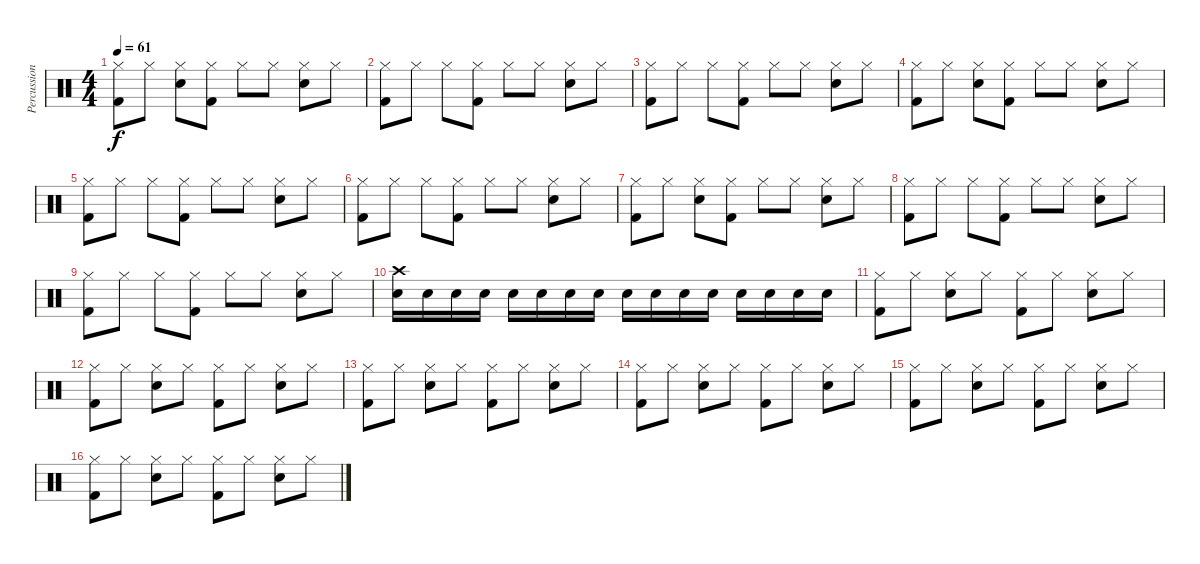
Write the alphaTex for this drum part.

\track ("Percussion" "Percussion") {instrument percussion}
\staff {score}
\articulation defaults
\ts (4 4)
\tempo 61
\clef neutral
\ks c
("Hi-Hat (closed)" "Kick (hit) 2").8{dy f} "Hi-Hat (closed)".8 ("Hi-Hat (closed)" "Snare (hit) 2").8 ("Hi-Hat (closed)" "Kick (hit) 2").8 "Hi-Hat (closed)".8 "Hi-Hat (closed)".8 ("Hi-Hat (closed)" "Snare (hit) 2").8 "Hi-Hat (closed)".8 |
("Hi-Hat (closed)" "Kick (hit) 2").8 "Hi-Hat (closed)".8 "Hi-Hat (closed)".8 ("Hi-Hat (closed)" "Kick (hit) 2").8 "Hi-Hat (closed)".8 "Hi-Hat (closed)".8 ("Hi-Hat (closed)" "Snare (hit) 2").8 "Hi-Hat (closed)".8 |
("Hi-Hat (closed)" "Kick (hit) 2").8 "Hi-Hat (closed)".8 "Hi-Hat (closed)".8 ("Hi-Hat (closed)" "Kick (hit) 2").8 "Hi-Hat (closed)".8 "Hi-Hat (closed)".8 ("Hi-Hat (closed)" "Snare (hit) 2").8 "Hi-Hat (closed)".8 |
("Hi-Hat (closed)" "Kick (hit) 2").8 "Hi-Hat (closed)".8 ("Hi-Hat (closed)" "Snare (hit) 2").8 ("Hi-Hat (closed)" "Kick (hit) 2").8 "Hi-Hat (closed)".8 "Hi-Hat (closed)".8 ("Hi-Hat (closed)" "Snare (hit) 2").8 "Hi-Hat (closed)".8 |
("Hi-Hat (closed)" "Kick (hit) 2").8 "Hi-Hat (closed)".8 "Hi-Hat (closed)".8 ("Hi-Hat (closed)" "Kick (hit) 2").8 "Hi-Hat (closed)".8 "Hi-Hat (closed)".8 ("Hi-Hat (closed)" "Snare (hit) 2").8 "Hi-Hat (closed)".8 |
("Hi-Hat (closed)" "Kick (hit) 2").8 "Hi-Hat (closed)".8 "Hi-Hat (closed)".8 ("Hi-Hat (closed)" "Kick (hit) 2").8 "Hi-Hat (closed)".8 "Hi-Hat (closed)".8 ("Hi-Hat (closed)" "Snare (hit) 2").8 "Hi-Hat (closed)".8 |
("Hi-Hat (closed)" "Kick (hit) 2").8 "Hi-Hat (closed)".8 ("Hi-Hat (closed)" "Snare (hit) 2").8 ("Hi-Hat (closed)" "Kick (hit) 2").8 "Hi-Hat (closed)".8 "Hi-Hat (closed)".8 ("Hi-Hat (closed)" "Snare (hit) 2").8 "Hi-Hat (closed)".8 |
("Hi-Hat (closed)" "Kick (hit) 2").8 "Hi-Hat (closed)".8 "Hi-Hat (closed)".8 ("Hi-Hat (closed)" "Kick (hit) 2").8 "Hi-Hat (closed)".8 "Hi-Hat (closed)".8 ("Hi-Hat (closed)" "Snare (hit) 2").8 "Hi-Hat (closed)".8 |
("Hi-Hat (closed)" "Kick (hit) 2").8 "Hi-Hat (closed)".8 "Hi-Hat (closed)".8 ("Hi-Hat (closed)" "Kick (hit) 2").8 "Hi-Hat (closed)".8 "Hi-Hat (closed)".8 ("Hi-Hat (closed)" "Snare (hit) 2").8 "Hi-Hat (closed)".8 |
("Crash high (hit)" "Electric Snare (hit)").16 "Electric Snare (hit)".16 "Electric Snare (hit)".16 "Electric Snare (hit)".16 "Electric Snare (hit)".16 "Electric Snare (hit)".16 "Electric Snare (hit)".16 "Electric Snare (hit)".16 "Electric Snare (hit)".16 "Electric Snare (hit)".16 "Electric Snare (hit)".16 "Electric Snare (hit)".16 "Electric Snare (hit)".16 "Electric Snare (hit)".16 "Electric Snare (hit)".16 "Electric Snare (hit)".16 |
("Hi-Hat (closed)" "Kick (hit) 2").8 "Hi-Hat (closed)".8 ("Hi-Hat (closed)" "Electric Snare (hit)").8 "Hi-Hat (closed)".8 ("Hi-Hat (closed)" "Kick (hit) 2").8 "Hi-Hat (closed)".8 ("Hi-Hat (closed)" "Electric Snare (hit)").8 "Hi-Hat (closed)".8 |
("Hi-Hat (closed)" "Kick (hit) 2").8 "Hi-Hat (closed)".8 ("Hi-Hat (closed)" "Electric Snare (hit)").8 "Hi-Hat (closed)".8 ("Hi-Hat (closed)" "Kick (hit) 2").8 "Hi-Hat (closed)".8 ("Hi-Hat (closed)" "Electric Snare (hit)").8 "Hi-Hat (closed)".8 |
("Hi-Hat (closed)" "Kick (hit) 2").8 "Hi-Hat (closed)".8 ("Hi-Hat (closed)" "Electric Snare (hit)").8 "Hi-Hat (closed)".8 ("Hi-Hat (closed)" "Kick (hit) 2").8 "Hi-Hat (closed)".8 ("Hi-Hat (closed)" "Electric Snare (hit)").8 "Hi-Hat (closed)".8 |
("Hi-Hat (closed)" "Kick (hit) 2").8 "Hi-Hat (closed)".8 ("Hi-Hat (closed)" "Electric Snare (hit)").8 "Hi-Hat (closed)".8 ("Hi-Hat (closed)" "Kick (hit) 2").8 "Hi-Hat (closed)".8 ("Hi-Hat (closed)" "Electric Snare (hit)").8 "Hi-Hat (closed)".8 |
("Hi-Hat (closed)" "Kick (hit) 2").8 "Hi-Hat (closed)".8 ("Hi-Hat (closed)" "Electric Snare (hit)").8 "Hi-Hat (closed)".8 ("Hi-Hat (closed)" "Kick (hit) 2").8 "Hi-Hat (closed)".8 ("Hi-Hat (closed)" "Electric Snare (hit)").8 "Hi-Hat (closed)".8 |
("Hi-Hat (closed)" "Kick (hit) 2").8 "Hi-Hat (closed)".8 ("Hi-Hat (closed)" "Electric Snare (hit)").8 "Hi-Hat (closed)".8 ("Hi-Hat (closed)" "Kick (hit) 2").8 "Hi-Hat (closed)".8 ("Hi-Hat (closed)" "Electric Snare (hit)").8 "Hi-Hat (closed)".8
